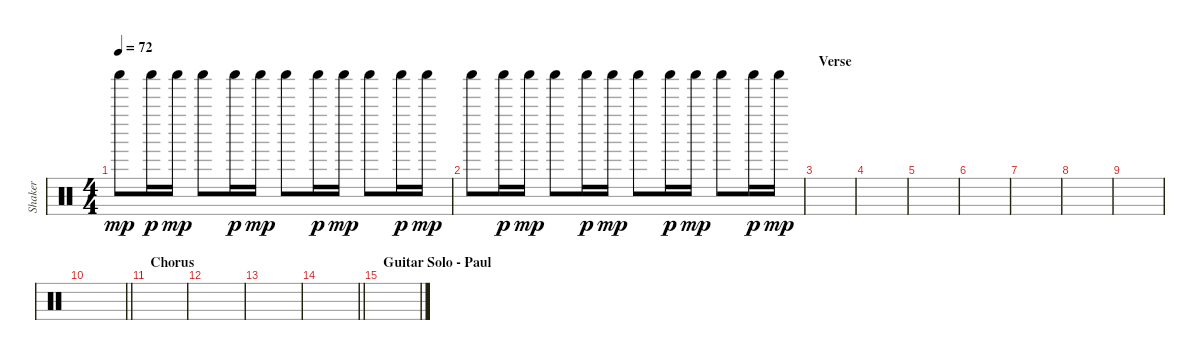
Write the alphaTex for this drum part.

\track ("Shaker" "Shaker") {instrument percussion}
\staff {score}
\articulation defaults
\ts (4 4)
\tempo 72
\clef neutral
\ks c "Shaker (hit)".8{dy mp} "Shaker (hit)".16{dy p} "Shaker (hit)".16{dy mp} "Shaker (hit)".8 "Shaker (hit)".16{dy p} "Shaker (hit)".16{dy mp} "Shaker (hit)".8 "Shaker (hit)".16{dy p} "Shaker (hit)".16{dy mp} "Shaker (hit)".8 "Shaker (hit)".16{dy p} "Shaker (hit)".16{dy mp}
|
"Shaker (hit)".8 "Shaker (hit)".16{dy p} "Shaker (hit)".16{dy mp} "Shaker (hit)".8 "Shaker (hit)".16{dy p} "Shaker (hit)".16{dy mp} "Shaker (hit)".8 "Shaker (hit)".16{dy p} "Shaker (hit)".16{dy mp} "Shaker (hit)".8 "Shaker (hit)".16{dy p} "Shaker (hit)".16{dy mp} |
\section ("" "Verse")
|
|
|
|
|
|
|
\barLineRight lightlight
|
\section ("" "Chorus")
|
|
|
\barLineRight lightlight
|
\section ("" "Guitar Solo - Paul")
